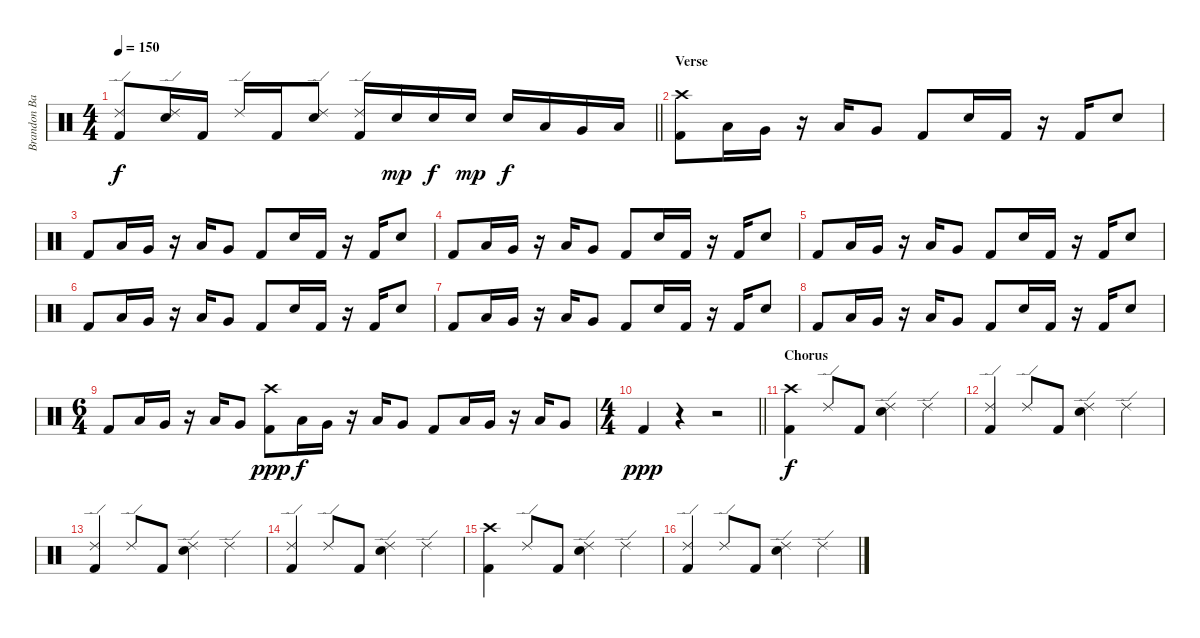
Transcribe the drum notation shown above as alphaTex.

\track ("Brandon Barnes - Drums" "Brandon Ba") {instrument percussion}
\staff {score}
\articulation defaults
\ts (4 4)
\tempo 150
\clef neutral
\barLineRight lightlight
\ks c
("Ride (edge) 2" "Kick (hit) 2").8{dy f} ("Snare (hit) 2" "Ride (edge) 2").16 "Kick (hit) 2".16 "Ride (edge) 2".16 "Kick (hit) 2".16 ("Snare (hit) 2" "Ride (edge) 2").8 ("Ride (edge) 2" "Kick (hit) 2").16 "Snare (hit) 2".16{dy mp} "Snare (hit) 2".16{dy f} "Snare (hit) 2".16{dy mp} "Snare (hit) 2".16{dy f} "Low Tom (hit)".16 "Very Low Tom (hit)".16 "Low Floor Tom (hit)".16 |
\section ("" "Verse")
("Crash high (hit)" "Kick (hit) 2").8 "Low Tom (hit)".16 "Very Low Tom (hit)".16 r.16 "Low Floor Tom (hit)".16 "Very Low Tom (hit)".8 "Kick (hit) 2".8 "Snare (hit) 2".16 "Kick (hit) 2".16 r.16 "Kick (hit) 2".16 "Snare (hit) 2".8 |
"Kick (hit) 2".8 "Low Tom (hit)".16 "Very Low Tom (hit)".16 r.16 "Low Floor Tom (hit)".16 "Very Low Tom (hit)".8 "Kick (hit) 2".8 "Snare (hit) 2".16 "Kick (hit) 2".16 r.16 "Kick (hit) 2".16 "Snare (hit) 2".8 |
"Kick (hit) 2".8 "Low Tom (hit)".16 "Very Low Tom (hit)".16 r.16 "Low Floor Tom (hit)".16 "Very Low Tom (hit)".8 "Kick (hit) 2".8 "Snare (hit) 2".16 "Kick (hit) 2".16 r.16 "Kick (hit) 2".16 "Snare (hit) 2".8 |
"Kick (hit) 2".8 "Low Tom (hit)".16 "Very Low Tom (hit)".16 r.16 "Low Floor Tom (hit)".16 "Very Low Tom (hit)".8 "Kick (hit) 2".8 "Snare (hit) 2".16 "Kick (hit) 2".16 r.16 "Kick (hit) 2".16 "Snare (hit) 2".8 |
"Kick (hit) 2".8 "Low Tom (hit)".16 "Very Low Tom (hit)".16 r.16 "Low Floor Tom (hit)".16 "Very Low Tom (hit)".8 "Kick (hit) 2".8 "Snare (hit) 2".16 "Kick (hit) 2".16 r.16 "Kick (hit) 2".16 "Snare (hit) 2".8 |
"Kick (hit) 2".8 "Low Tom (hit)".16 "Very Low Tom (hit)".16 r.16 "Low Floor Tom (hit)".16 "Very Low Tom (hit)".8 "Kick (hit) 2".8 "Snare (hit) 2".16 "Kick (hit) 2".16 r.16 "Kick (hit) 2".16 "Snare (hit) 2".8 |
"Kick (hit) 2".8 "Low Tom (hit)".16 "Very Low Tom (hit)".16 r.16 "Low Floor Tom (hit)".16 "Very Low Tom (hit)".8 "Kick (hit) 2".8 "Snare (hit) 2".16 "Kick (hit) 2".16 r.16 "Kick (hit) 2".16 "Snare (hit) 2".8 |
\ts (6 4)
"Kick (hit) 2".8 "Low Tom (hit)".16 "Very Low Tom (hit)".16 r.16 "Low Floor Tom (hit)".16 "Very Low Tom (hit)".8 ("Crash high (hit)" "Kick (hit) 2").8{dy ppp} "Low Tom (hit)".16{dy f} "Very Low Tom (hit)".16 r.16 "Low Floor Tom (hit)".16 "Very Low Tom (hit)".8 "Kick (hit) 2".8 "Low Tom (hit)".16 "Very Low Tom (hit)".16 r.16 "Low Floor Tom (hit)".16 "Very Low Tom (hit)".8 |
\ts (4 4)
\barLineRight lightlight "Kick (hit) 2".4{dy ppp}
r.4 r.2 |
\section ("" "Chorus")
("Kick (hit) 2" "Crash high (hit)").4{dy f} "Ride (edge) 2".8 "Kick (hit) 2".8 ("Snare (hit) 2" "Ride (edge) 2").4 "Ride (edge) 2".4 |
("Kick (hit) 2" "Ride (edge) 2").4 "Ride (edge) 2".8 "Kick (hit) 2".8 ("Snare (hit) 2" "Ride (edge) 2").4 "Ride (edge) 2".4 |
("Kick (hit) 2" "Ride (edge) 2").4 "Ride (edge) 2".8 "Kick (hit) 2".8 ("Snare (hit) 2" "Ride (edge) 2").4 "Ride (edge) 2".4 |
("Kick (hit) 2" "Ride (edge) 2").4 "Ride (edge) 2".8 "Kick (hit) 2".8 ("Snare (hit) 2" "Ride (edge) 2").4 "Ride (edge) 2".4 |
("Kick (hit) 2" "Crash high (hit)").4 "Ride (edge) 2".8 "Kick (hit) 2".8 ("Snare (hit) 2" "Ride (edge) 2").4 "Ride (edge) 2".4 |
("Kick (hit) 2" "Ride (edge) 2").4 "Ride (edge) 2".8 "Kick (hit) 2".8 ("Snare (hit) 2" "Ride (edge) 2").4 "Ride (edge) 2".4
